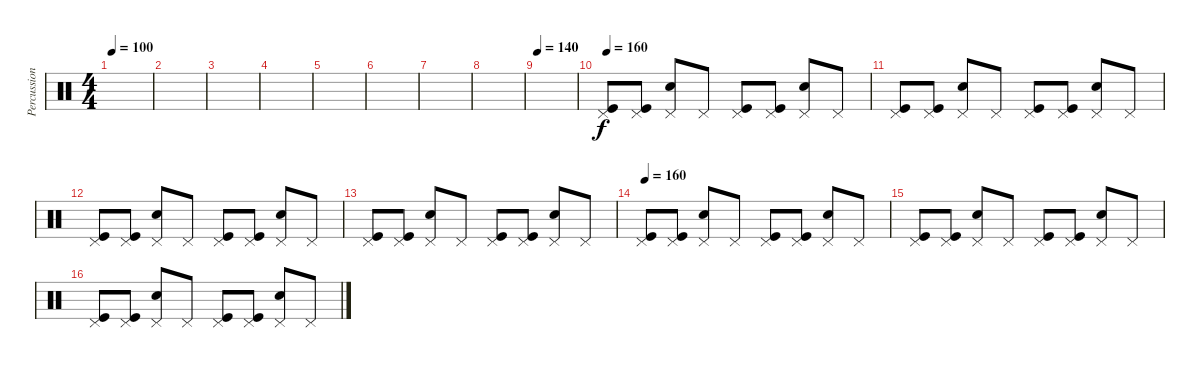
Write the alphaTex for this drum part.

\track ("Percussion" "Percussion") {instrument percussion}
\staff {score}
\articulation defaults
\ts (4 4)
\tempo 100
\clef neutral
\ks c
|
|
|
|
|
|
|
|
\tempo 140
|
\tempo 160
("Kick (hit)" "Pedal Hi-Hat (hit)").8 ("Kick (hit)" "Pedal Hi-Hat (hit)").8 ("Electric Snare (hit)" "Pedal Hi-Hat (hit)").8 "Pedal Hi-Hat (hit)".8 ("Kick (hit)" "Pedal Hi-Hat (hit)").8 ("Kick (hit)" "Pedal Hi-Hat (hit)").8 ("Electric Snare (hit)" "Pedal Hi-Hat (hit)").8 "Pedal Hi-Hat (hit)".8 |
("Kick (hit)" "Pedal Hi-Hat (hit)").8 ("Kick (hit)" "Pedal Hi-Hat (hit)").8 ("Electric Snare (hit)" "Pedal Hi-Hat (hit)").8 "Pedal Hi-Hat (hit)".8 ("Kick (hit)" "Pedal Hi-Hat (hit)").8 ("Kick (hit)" "Pedal Hi-Hat (hit)").8 ("Electric Snare (hit)" "Pedal Hi-Hat (hit)").8 "Pedal Hi-Hat (hit)".8 |
("Kick (hit)" "Pedal Hi-Hat (hit)").8 ("Kick (hit)" "Pedal Hi-Hat (hit)").8 ("Electric Snare (hit)" "Pedal Hi-Hat (hit)").8 "Pedal Hi-Hat (hit)".8 ("Kick (hit)" "Pedal Hi-Hat (hit)").8 ("Kick (hit)" "Pedal Hi-Hat (hit)").8 ("Electric Snare (hit)" "Pedal Hi-Hat (hit)").8 "Pedal Hi-Hat (hit)".8 |
("Kick (hit)" "Pedal Hi-Hat (hit)").8 ("Kick (hit)" "Pedal Hi-Hat (hit)").8 ("Electric Snare (hit)" "Pedal Hi-Hat (hit)").8 "Pedal Hi-Hat (hit)".8 ("Kick (hit)" "Pedal Hi-Hat (hit)").8 ("Kick (hit)" "Pedal Hi-Hat (hit)").8 ("Electric Snare (hit)" "Pedal Hi-Hat (hit)").8 "Pedal Hi-Hat (hit)".8 |
\tempo 160
("Kick (hit)" "Pedal Hi-Hat (hit)").8 ("Kick (hit)" "Pedal Hi-Hat (hit)").8 ("Electric Snare (hit)" "Pedal Hi-Hat (hit)").8 "Pedal Hi-Hat (hit)".8 ("Kick (hit)" "Pedal Hi-Hat (hit)").8 ("Kick (hit)" "Pedal Hi-Hat (hit)").8 ("Electric Snare (hit)" "Pedal Hi-Hat (hit)").8 "Pedal Hi-Hat (hit)".8 |
("Kick (hit)" "Pedal Hi-Hat (hit)").8 ("Kick (hit)" "Pedal Hi-Hat (hit)").8 ("Electric Snare (hit)" "Pedal Hi-Hat (hit)").8 "Pedal Hi-Hat (hit)".8 ("Kick (hit)" "Pedal Hi-Hat (hit)").8 ("Kick (hit)" "Pedal Hi-Hat (hit)").8 ("Electric Snare (hit)" "Pedal Hi-Hat (hit)").8 "Pedal Hi-Hat (hit)".8 |
("Kick (hit)" "Pedal Hi-Hat (hit)").8 ("Kick (hit)" "Pedal Hi-Hat (hit)").8 ("Electric Snare (hit)" "Pedal Hi-Hat (hit)").8 "Pedal Hi-Hat (hit)".8 ("Kick (hit)" "Pedal Hi-Hat (hit)").8 ("Kick (hit)" "Pedal Hi-Hat (hit)").8 ("Electric Snare (hit)" "Pedal Hi-Hat (hit)").8 "Pedal Hi-Hat (hit)".8
